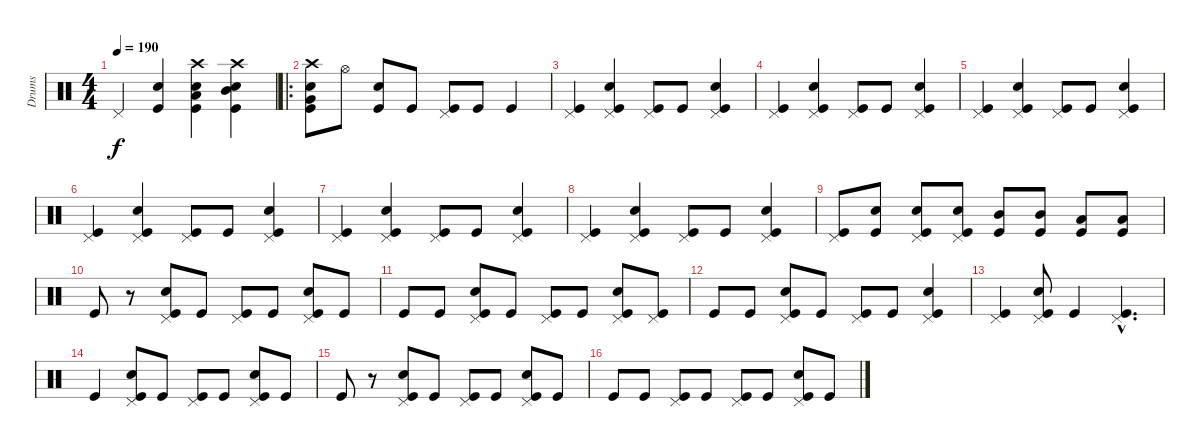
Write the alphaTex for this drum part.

\track ("Drums" "Drums") {instrument percussion}
\staff {score}
\articulation defaults
\ts (4 4)
\tempo 190
\clef neutral
\ks c "Pedal Hi-Hat (hit)".4{dy f}
("Snare (hit) 2" "Kick (hit)").4 ("Snare (hit) 2" "Low Tom (hit)" "Kick (hit)" "Crash high (hit)").4 ("Snare (hit) 2" "Mid Tom (hit)" "Kick (hit)" "Crash high (hit)").4 |
\ro
("Snare (hit) 2" "Very Low Tom (hit)" "Kick (hit)" "Crash high (hit)").8 "Hi-Hat (open)".8 ("Snare (hit) 2" "Kick (hit)").8 "Kick (hit)".8 ("Kick (hit)" "Pedal Hi-Hat (hit)").8 "Kick (hit)".8 "Kick (hit)".4 |
("Kick (hit)" "Pedal Hi-Hat (hit)").4 ("Snare (hit) 2" "Kick (hit)" "Pedal Hi-Hat (hit)").4 ("Kick (hit)" "Pedal Hi-Hat (hit)").8 "Kick (hit)".8 ("Snare (hit) 2" "Kick (hit)" "Pedal Hi-Hat (hit)").4 |
("Kick (hit)" "Pedal Hi-Hat (hit)").4 ("Snare (hit) 2" "Kick (hit)" "Pedal Hi-Hat (hit)").4 ("Kick (hit)" "Pedal Hi-Hat (hit)").8 "Kick (hit)".8 ("Snare (hit) 2" "Kick (hit)" "Pedal Hi-Hat (hit)").4 |
("Kick (hit)" "Pedal Hi-Hat (hit)").4 ("Snare (hit) 2" "Kick (hit)" "Pedal Hi-Hat (hit)").4 ("Kick (hit)" "Pedal Hi-Hat (hit)").8 "Kick (hit)".8 ("Snare (hit) 2" "Kick (hit)" "Pedal Hi-Hat (hit)").4 |
("Kick (hit)" "Pedal Hi-Hat (hit)").4 ("Snare (hit) 2" "Kick (hit)" "Pedal Hi-Hat (hit)").4 ("Kick (hit)" "Pedal Hi-Hat (hit)").8 "Kick (hit)".8 ("Snare (hit) 2" "Kick (hit)" "Pedal Hi-Hat (hit)").4 |
("Kick (hit)" "Pedal Hi-Hat (hit)").4 ("Snare (hit) 2" "Kick (hit)" "Pedal Hi-Hat (hit)").4 ("Kick (hit)" "Pedal Hi-Hat (hit)").8 "Kick (hit)".8 ("Snare (hit) 2" "Kick (hit)" "Pedal Hi-Hat (hit)").4 |
("Kick (hit)" "Pedal Hi-Hat (hit)").4 ("Snare (hit) 2" "Kick (hit)" "Pedal Hi-Hat (hit)").4 ("Kick (hit)" "Pedal Hi-Hat (hit)").8 "Kick (hit)".8 ("Snare (hit) 2" "Kick (hit)" "Pedal Hi-Hat (hit)").4 |
("Kick (hit)" "Pedal Hi-Hat (hit)").8 ("Snare (hit) 2" "Kick (hit)").8 ("Snare (hit) 2" "Kick (hit)" "Pedal Hi-Hat (hit)").8 ("Snare (hit) 2" "Kick (hit)" "Pedal Hi-Hat (hit)").8 ("Mid Tom (hit)" "Kick (hit)").8 ("Mid Tom (hit)" "Kick (hit)").8 ("Low Tom (hit)" "Kick (hit)").8 ("Low Tom (hit)" "Kick (hit)").8 |
"Kick (hit)".8 r.8 ("Snare (hit) 2" "Kick (hit)" "Pedal Hi-Hat (hit)").8 "Kick (hit)".8 ("Kick (hit)" "Pedal Hi-Hat (hit)").8 "Kick (hit)".8 ("Snare (hit) 2" "Kick (hit)" "Pedal Hi-Hat (hit)").8 "Kick (hit)".8 |
"Kick (hit)".8 "Kick (hit)".8 ("Snare (hit) 2" "Kick (hit)" "Pedal Hi-Hat (hit)").8 "Kick (hit)".8 ("Kick (hit)" "Pedal Hi-Hat (hit)").8 "Kick (hit)".8 ("Snare (hit) 2" "Kick (hit)" "Pedal Hi-Hat (hit)").8 ("Kick (hit)" "Pedal Hi-Hat (hit)").8 |
"Kick (hit)".8 "Kick (hit)".8 ("Snare (hit) 2" "Kick (hit)" "Pedal Hi-Hat (hit)").8 "Kick (hit)".8 ("Kick (hit)" "Pedal Hi-Hat (hit)").8 "Kick (hit)".8 ("Snare (hit) 2" "Kick (hit)" "Pedal Hi-Hat (hit)").4 |
("Kick (hit)" "Pedal Hi-Hat (hit)").4 ("Snare (hit) 2" "Kick (hit)" "Pedal Hi-Hat (hit)").8 "Kick (hit)".4 ("Kick (hit)"{hac} "Pedal Hi-Hat (hit)"{hac}).4{d} |
"Kick (hit)".4 ("Snare (hit) 2" "Kick (hit)" "Pedal Hi-Hat (hit)").8 "Kick (hit)".8 ("Kick (hit)" "Pedal Hi-Hat (hit)").8 "Kick (hit)".8 ("Snare (hit) 2" "Kick (hit)" "Pedal Hi-Hat (hit)").8 "Kick (hit)".8 |
"Kick (hit)".8 r.8 ("Snare (hit) 2" "Kick (hit)" "Pedal Hi-Hat (hit)").8 "Kick (hit)".8 ("Kick (hit)" "Pedal Hi-Hat (hit)").8 "Kick (hit)".8 ("Snare (hit) 2" "Kick (hit)" "Pedal Hi-Hat (hit)").8 "Kick (hit)".8 |
"Kick (hit)".8 "Kick (hit)".8 ("Kick (hit)" "Pedal Hi-Hat (hit)").8 "Kick (hit)".8 ("Kick (hit)" "Pedal Hi-Hat (hit)").8 "Kick (hit)".8 ("Snare (hit) 2" "Kick (hit)" "Pedal Hi-Hat (hit)").8 "Kick (hit)".8
